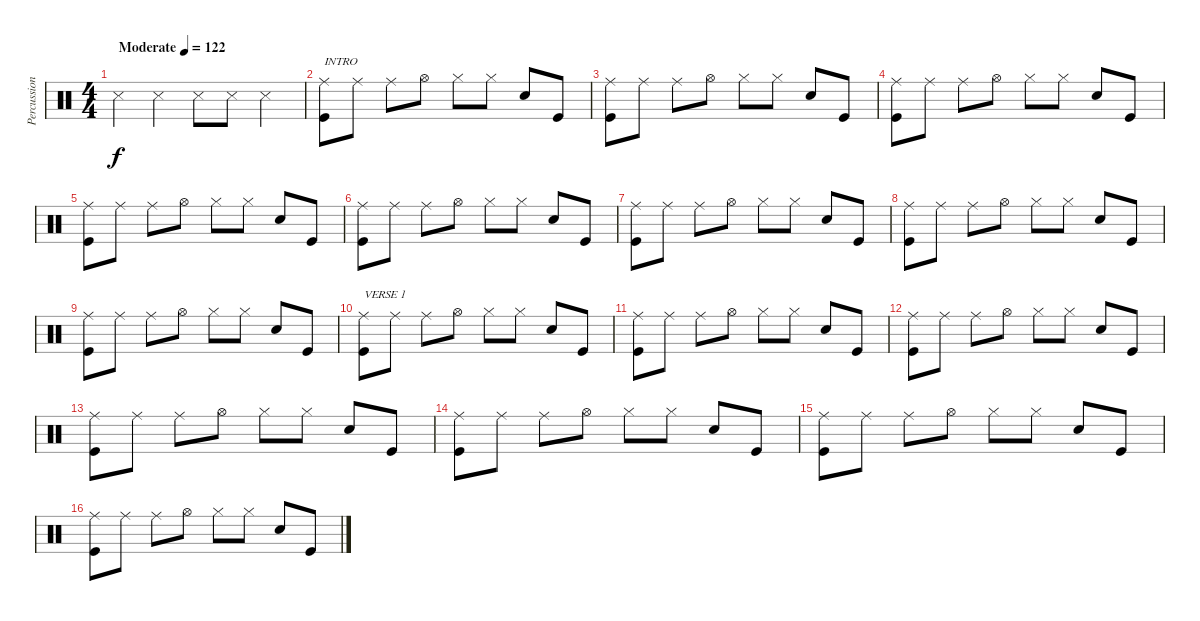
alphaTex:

\track ("Percussioni" "Percussion") {instrument percussion}
\staff {score}
\articulation defaults
\ts (4 4)
\tempo (122 "Moderate")
\clef neutral
\ks c "Snare (side stick) 3".4{dy f} "Snare (side stick) 3".4 "Snare (side stick) 3".8 "Snare (side stick) 3".8 "Snare (side stick) 3".4
|
("Ride (middle)" "Kick (hit)").8{txt "INTRO"} "Ride (middle)".8 "Ride (middle)".8 "Hi-Hat (open)".8 "Hi-Hat (closed)".8 "Hi-Hat (closed)".8 "Snare (hit) 2".8 "Kick (hit)".8 |
("Ride (middle)" "Kick (hit)").8 "Ride (middle)".8 "Ride (middle)".8 "Hi-Hat (open)".8 "Hi-Hat (closed)".8 "Hi-Hat (closed)".8 "Snare (hit) 2".8 "Kick (hit)".8 |
("Ride (middle)" "Kick (hit)").8 "Ride (middle)".8 "Ride (middle)".8 "Hi-Hat (open)".8 "Hi-Hat (closed)".8 "Hi-Hat (closed)".8 "Snare (hit) 2".8 "Kick (hit)".8 |
("Ride (middle)" "Kick (hit)").8 "Ride (middle)".8 "Ride (middle)".8 "Hi-Hat (open)".8 "Hi-Hat (closed)".8 "Hi-Hat (closed)".8 "Snare (hit) 2".8 "Kick (hit)".8 |
("Ride (middle)" "Kick (hit)").8 "Ride (middle)".8 "Ride (middle)".8 "Hi-Hat (open)".8 "Hi-Hat (closed)".8 "Hi-Hat (closed)".8 "Snare (hit) 2".8 "Kick (hit)".8 |
("Ride (middle)" "Kick (hit)").8 "Ride (middle)".8 "Ride (middle)".8 "Hi-Hat (open)".8 "Hi-Hat (closed)".8 "Hi-Hat (closed)".8 "Snare (hit) 2".8 "Kick (hit)".8 |
("Ride (middle)" "Kick (hit)").8 "Ride (middle)".8 "Ride (middle)".8 "Hi-Hat (open)".8 "Hi-Hat (closed)".8 "Hi-Hat (closed)".8 "Snare (hit) 2".8 "Kick (hit)".8 |
("Ride (middle)" "Kick (hit)").8 "Ride (middle)".8 "Ride (middle)".8 "Hi-Hat (open)".8 "Hi-Hat (closed)".8 "Hi-Hat (closed)".8 "Snare (hit) 2".8 "Kick (hit)".8 |
("Ride (middle)" "Kick (hit)").8{txt "VERSE 1"} "Ride (middle)".8 "Ride (middle)".8 "Hi-Hat (open)".8 "Hi-Hat (closed)".8 "Hi-Hat (closed)".8 "Snare (hit) 2".8 "Kick (hit)".8 |
("Ride (middle)" "Kick (hit)").8 "Ride (middle)".8 "Ride (middle)".8 "Hi-Hat (open)".8 "Hi-Hat (closed)".8 "Hi-Hat (closed)".8 "Snare (hit) 2".8 "Kick (hit)".8 |
("Ride (middle)" "Kick (hit)").8 "Ride (middle)".8 "Ride (middle)".8 "Hi-Hat (open)".8 "Hi-Hat (closed)".8 "Hi-Hat (closed)".8 "Snare (hit) 2".8 "Kick (hit)".8 |
("Ride (middle)" "Kick (hit)").8 "Ride (middle)".8 "Ride (middle)".8 "Hi-Hat (open)".8 "Hi-Hat (closed)".8 "Hi-Hat (closed)".8 "Snare (hit) 2".8 "Kick (hit)".8 |
("Ride (middle)" "Kick (hit)").8 "Ride (middle)".8 "Ride (middle)".8 "Hi-Hat (open)".8 "Hi-Hat (closed)".8 "Hi-Hat (closed)".8 "Snare (hit) 2".8 "Kick (hit)".8 |
("Ride (middle)" "Kick (hit)").8 "Ride (middle)".8 "Ride (middle)".8 "Hi-Hat (open)".8 "Hi-Hat (closed)".8 "Hi-Hat (closed)".8 "Snare (hit) 2".8 "Kick (hit)".8 |
("Ride (middle)" "Kick (hit)").8 "Ride (middle)".8 "Ride (middle)".8 "Hi-Hat (open)".8 "Hi-Hat (closed)".8 "Hi-Hat (closed)".8 "Snare (hit) 2".8 "Kick (hit)".8
